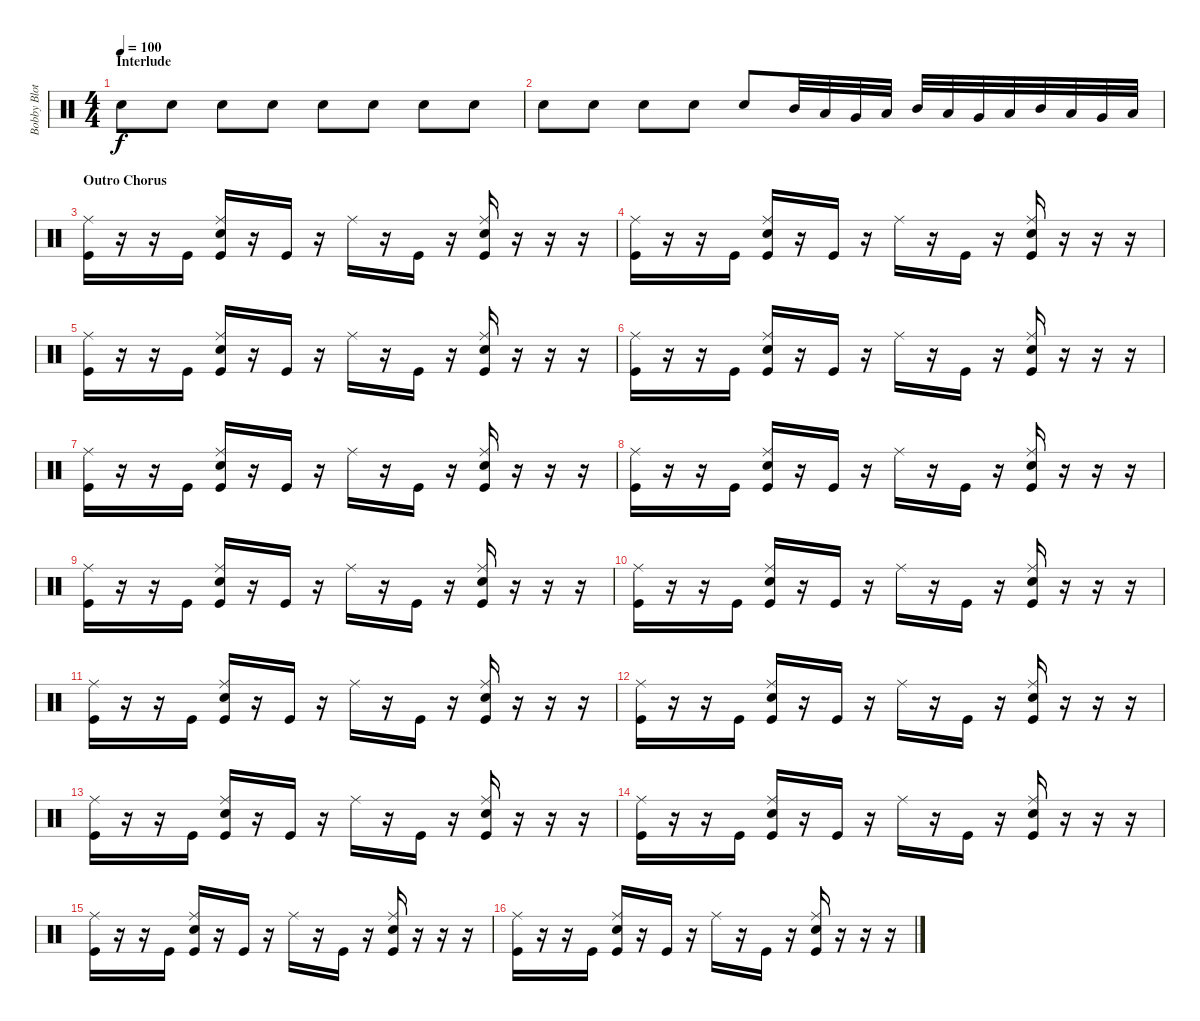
\track ("Bobby Blotzer - Drums" "Bobby Blot") {instrument percussion}
\staff {score}
\articulation defaults
\ts (4 4)
\section ("" "Interlude")
\tempo 100
\clef neutral
\ks c "Snare (hit) 2".8{dy f} "Snare (hit) 2".8 "Snare (hit) 2".8 "Snare (hit) 2".8 "Snare (hit) 2".8 "Snare (hit) 2".8 "Snare (hit) 2".8 "Snare (hit) 2".8
|
"Snare (hit) 2".8 "Snare (hit) 2".8 "Snare (hit) 2".8 "Snare (hit) 2".8 "Snare (hit) 2".8 "Mid Tom (hit)".32 "Low Tom (hit)".32 "Very Low Tom (hit)".32 "Low Floor Tom (hit)".32 "Mid Tom (hit)".32 "Low Tom (hit)".32 "Very Low Tom (hit)".32 "Low Floor Tom (hit)".32 "Mid Tom (hit)".32 "Low Tom (hit)".32 "Very Low Tom (hit)".32 "Low Floor Tom (hit)".32 |
\section ("" "Outro Chorus")
("Ride (middle)" "Kick (hit)").16 r.16 r.16 "Kick (hit)".16 ("Ride (middle)" "Snare (hit) 2" "Kick (hit)").16 r.16 "Kick (hit)".16 r.16 "Ride (middle)".16 r.16 "Kick (hit)".16 r.16 ("Ride (middle)" "Snare (hit) 2" "Kick (hit)").16 r.16 r.16 r.16 |
("Ride (middle)" "Kick (hit)").16 r.16 r.16 "Kick (hit)".16 ("Ride (middle)" "Snare (hit) 2" "Kick (hit)").16 r.16 "Kick (hit)".16 r.16 "Ride (middle)".16 r.16 "Kick (hit)".16 r.16 ("Ride (middle)" "Snare (hit) 2" "Kick (hit)").16 r.16 r.16 r.16 |
("Ride (middle)" "Kick (hit)").16 r.16 r.16 "Kick (hit)".16 ("Ride (middle)" "Snare (hit) 2" "Kick (hit)").16 r.16 "Kick (hit)".16 r.16 "Ride (middle)".16 r.16 "Kick (hit)".16 r.16 ("Ride (middle)" "Snare (hit) 2" "Kick (hit)").16 r.16 r.16 r.16 |
("Ride (middle)" "Kick (hit)").16 r.16 r.16 "Kick (hit)".16 ("Ride (middle)" "Snare (hit) 2" "Kick (hit)").16 r.16 "Kick (hit)".16 r.16 "Ride (middle)".16 r.16 "Kick (hit)".16 r.16 ("Ride (middle)" "Snare (hit) 2" "Kick (hit)").16 r.16 r.16 r.16 |
("Ride (middle)" "Kick (hit)").16 r.16 r.16 "Kick (hit)".16 ("Ride (middle)" "Snare (hit) 2" "Kick (hit)").16 r.16 "Kick (hit)".16 r.16 "Ride (middle)".16 r.16 "Kick (hit)".16 r.16 ("Ride (middle)" "Snare (hit) 2" "Kick (hit)").16 r.16 r.16 r.16 |
("Ride (middle)" "Kick (hit)").16 r.16 r.16 "Kick (hit)".16 ("Ride (middle)" "Snare (hit) 2" "Kick (hit)").16 r.16 "Kick (hit)".16 r.16 "Ride (middle)".16 r.16 "Kick (hit)".16 r.16 ("Ride (middle)" "Snare (hit) 2" "Kick (hit)").16 r.16 r.16 r.16 |
("Ride (middle)" "Kick (hit)").16 r.16 r.16 "Kick (hit)".16 ("Ride (middle)" "Snare (hit) 2" "Kick (hit)").16 r.16 "Kick (hit)".16 r.16 "Ride (middle)".16 r.16 "Kick (hit)".16 r.16 ("Ride (middle)" "Snare (hit) 2" "Kick (hit)").16 r.16 r.16 r.16 |
("Ride (middle)" "Kick (hit)").16 r.16 r.16 "Kick (hit)".16 ("Ride (middle)" "Snare (hit) 2" "Kick (hit)").16 r.16 "Kick (hit)".16 r.16 "Ride (middle)".16 r.16 "Kick (hit)".16 r.16 ("Ride (middle)" "Snare (hit) 2" "Kick (hit)").16 r.16 r.16 r.16 |
("Ride (middle)" "Kick (hit)").16 r.16 r.16 "Kick (hit)".16 ("Ride (middle)" "Snare (hit) 2" "Kick (hit)").16 r.16 "Kick (hit)".16 r.16 "Ride (middle)".16 r.16 "Kick (hit)".16 r.16 ("Ride (middle)" "Snare (hit) 2" "Kick (hit)").16 r.16 r.16 r.16 |
("Ride (middle)" "Kick (hit)").16 r.16 r.16 "Kick (hit)".16 ("Ride (middle)" "Snare (hit) 2" "Kick (hit)").16 r.16 "Kick (hit)".16 r.16 "Ride (middle)".16 r.16 "Kick (hit)".16 r.16 ("Ride (middle)" "Snare (hit) 2" "Kick (hit)").16 r.16 r.16 r.16 |
("Ride (middle)" "Kick (hit)").16 r.16 r.16 "Kick (hit)".16 ("Ride (middle)" "Snare (hit) 2" "Kick (hit)").16 r.16 "Kick (hit)".16 r.16 "Ride (middle)".16 r.16 "Kick (hit)".16 r.16 ("Ride (middle)" "Snare (hit) 2" "Kick (hit)").16 r.16 r.16 r.16 |
("Ride (middle)" "Kick (hit)").16 r.16 r.16 "Kick (hit)".16 ("Ride (middle)" "Snare (hit) 2" "Kick (hit)").16 r.16 "Kick (hit)".16 r.16 "Ride (middle)".16 r.16 "Kick (hit)".16 r.16 ("Ride (middle)" "Snare (hit) 2" "Kick (hit)").16 r.16 r.16 r.16 |
("Ride (middle)" "Kick (hit)").16 r.16 r.16 "Kick (hit)".16 ("Ride (middle)" "Snare (hit) 2" "Kick (hit)").16 r.16 "Kick (hit)".16 r.16 "Ride (middle)".16 r.16 "Kick (hit)".16 r.16 ("Ride (middle)" "Snare (hit) 2" "Kick (hit)").16 r.16 r.16 r.16 |
("Ride (middle)" "Kick (hit)").16 r.16 r.16 "Kick (hit)".16 ("Ride (middle)" "Snare (hit) 2" "Kick (hit)").16 r.16 "Kick (hit)".16 r.16 "Ride (middle)".16 r.16 "Kick (hit)".16 r.16 ("Ride (middle)" "Snare (hit) 2" "Kick (hit)").16 r.16 r.16 r.16
